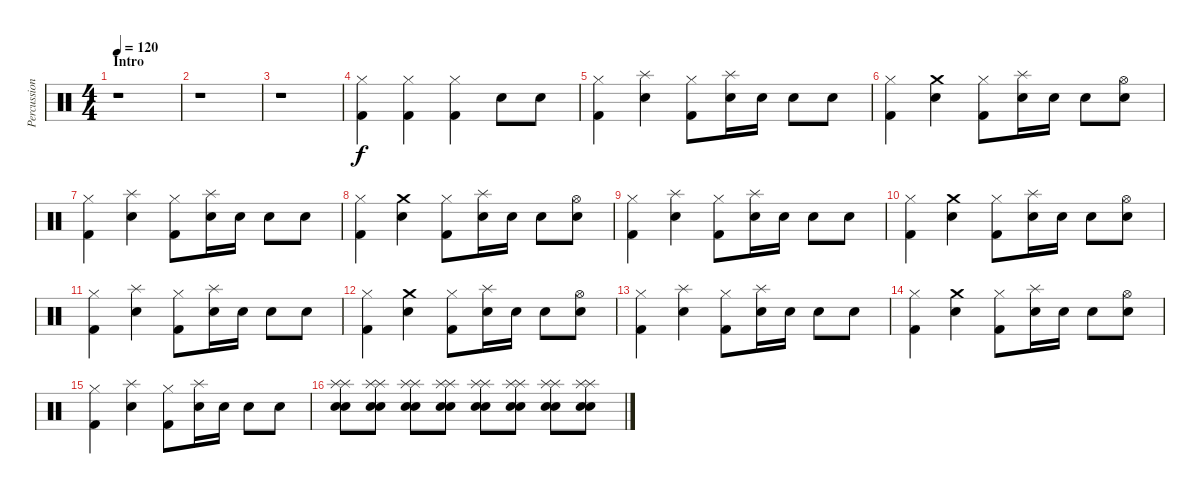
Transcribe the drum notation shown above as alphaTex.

\track ("Percussions" "Percussion") {instrument percussion}
\staff {score}
\articulation defaults
\ts (4 4)
\section ("" "Intro")
\tempo 120
\clef neutral
\ks c
r.1{dy f} |
r.1 |
r.1 |
("Hi-Hat (closed)" "Kick (hit) 2").4 ("Hi-Hat (closed)" "Kick (hit) 2").4 ("Hi-Hat (closed)" "Kick (hit) 2").4 "Snare (hit) 2".8 "Snare (hit) 2".8 |
("Hi-Hat (closed)" "Kick (hit) 2").4 ("Splash (hit)" "Snare (hit) 2").4 ("Hi-Hat (closed)" "Kick (hit) 2").8 ("Splash (hit)" "Snare (hit) 2").16 "Snare (hit) 2".16 "Snare (hit) 2".8 "Snare (hit) 2".8 |
("Hi-Hat (closed)" "Kick (hit) 2").4 ("Crash medium (hit)" "Snare (hit) 2").4 ("Hi-Hat (closed)" "Kick (hit) 2").8 ("Splash (hit)" "Snare (hit) 2").16 "Snare (hit) 2".16 "Snare (hit) 2".8 ("Hi-Hat (open)" "Snare (hit) 2").8 |
("Hi-Hat (closed)" "Kick (hit) 2").4 ("Splash (hit)" "Snare (hit) 2").4 ("Hi-Hat (closed)" "Kick (hit) 2").8 ("Splash (hit)" "Snare (hit) 2").16 "Snare (hit) 2".16 "Snare (hit) 2".8 "Snare (hit) 2".8 |
("Hi-Hat (closed)" "Kick (hit) 2").4 ("Crash medium (hit)" "Snare (hit) 2").4 ("Hi-Hat (closed)" "Kick (hit) 2").8 ("Splash (hit)" "Snare (hit) 2").16 "Snare (hit) 2".16 "Snare (hit) 2".8 ("Hi-Hat (open)" "Snare (hit) 2").8 |
("Hi-Hat (closed)" "Kick (hit) 2").4 ("Splash (hit)" "Snare (hit) 2").4 ("Hi-Hat (closed)" "Kick (hit) 2").8 ("Splash (hit)" "Snare (hit) 2").16 "Snare (hit) 2".16 "Snare (hit) 2".8 "Snare (hit) 2".8 |
("Hi-Hat (closed)" "Kick (hit) 2").4 ("Crash medium (hit)" "Snare (hit) 2").4 ("Hi-Hat (closed)" "Kick (hit) 2").8 ("Splash (hit)" "Snare (hit) 2").16 "Snare (hit) 2".16 "Snare (hit) 2".8 ("Hi-Hat (open)" "Snare (hit) 2").8 |
("Hi-Hat (closed)" "Kick (hit) 2").4 ("Splash (hit)" "Snare (hit) 2").4 ("Hi-Hat (closed)" "Kick (hit) 2").8 ("Splash (hit)" "Snare (hit) 2").16 "Snare (hit) 2".16 "Snare (hit) 2".8 "Snare (hit) 2".8 |
("Hi-Hat (closed)" "Kick (hit) 2").4 ("Crash medium (hit)" "Snare (hit) 2").4 ("Hi-Hat (closed)" "Kick (hit) 2").8 ("Splash (hit)" "Snare (hit) 2").16 "Snare (hit) 2".16 "Snare (hit) 2".8 ("Hi-Hat (open)" "Snare (hit) 2").8 |
("Hi-Hat (closed)" "Kick (hit) 2").4 ("Splash (hit)" "Snare (hit) 2").4 ("Hi-Hat (closed)" "Kick (hit) 2").8 ("Splash (hit)" "Snare (hit) 2").16 "Snare (hit) 2".16 "Snare (hit) 2".8 "Snare (hit) 2".8 |
("Hi-Hat (closed)" "Kick (hit) 2").4 ("Crash medium (hit)" "Snare (hit) 2").4 ("Hi-Hat (closed)" "Kick (hit) 2").8 ("Splash (hit)" "Snare (hit) 2").16 "Snare (hit) 2".16 "Snare (hit) 2".8 ("Hi-Hat (open)" "Snare (hit) 2").8 |
("Hi-Hat (closed)" "Kick (hit) 2").4 ("Splash (hit)" "Snare (hit) 2").4 ("Hi-Hat (closed)" "Kick (hit) 2").8 ("Splash (hit)" "Snare (hit) 2").16 "Snare (hit) 2".16 "Snare (hit) 2".8 "Snare (hit) 2".8 |
("Splash (hit)" "Splash (hit)" "Snare (hit) 2" "Snare (hit) 2").8{volume 4} ("Splash (hit)" "Splash (hit)" "Snare (hit) 2" "Snare (hit) 2").8{volume 10} ("Splash (hit)" "Splash (hit)" "Snare (hit) 2" "Snare (hit) 2").8 ("Splash (hit)" "Splash (hit)" "Snare (hit) 2" "Snare (hit) 2").8 ("Splash (hit)" "Splash (hit)" "Snare (hit) 2" "Snare (hit) 2").8 ("Splash (hit)" "Splash (hit)" "Snare (hit) 2" "Snare (hit) 2").8 ("Splash (hit)" "Splash (hit)" "Snare (hit) 2" "Snare (hit) 2").8 ("Splash (hit)" "Splash (hit)" "Snare (hit) 2" "Snare (hit) 2").8
